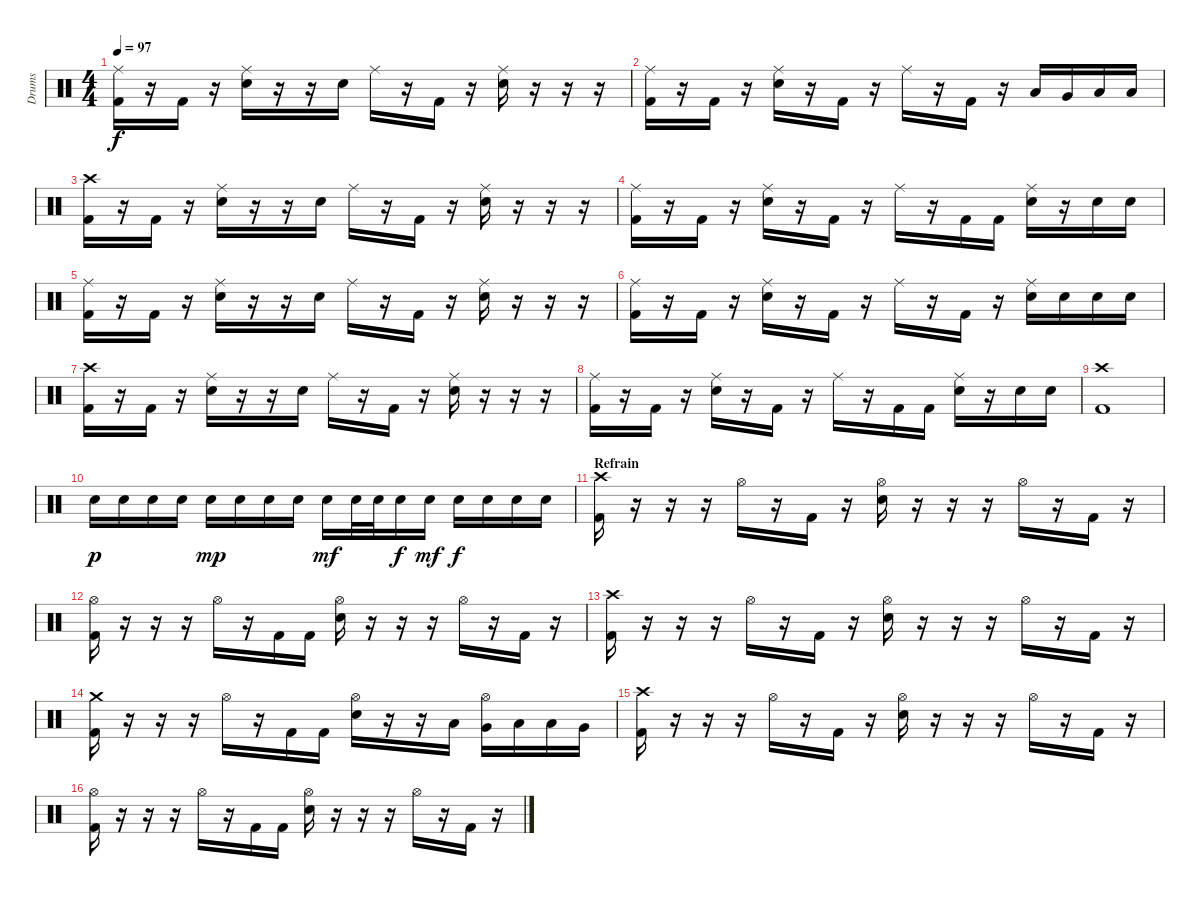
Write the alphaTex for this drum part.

\track ("Drums" "Drums") {instrument percussion}
\staff {score}
\articulation defaults
\ts (4 4)
\tempo 97
\clef neutral
\ks c
("Kick (hit) 2" "Ride (middle)").16{dy f} r.16 "Kick (hit) 2".16 r.16 ("Electric Snare (hit)" "Ride (middle)").16 r.16 r.16 "Electric Snare (hit)".16 "Ride (middle)".16 r.16 "Kick (hit) 2".16 r.16 ("Electric Snare (hit)" "Ride (middle)").16 r.16 r.16 r.16 |
("Kick (hit) 2" "Ride (middle)").16 r.16 "Kick (hit) 2".16 r.16 ("Electric Snare (hit)" "Ride (middle)").16 r.16 "Kick (hit) 2".16 r.16 "Ride (middle)".16 r.16 "Kick (hit) 2".16 r.16 "Low Tom (hit)".16 "Very Low Tom (hit)".16 "Low Floor Tom (hit)".16 "Low Floor Tom (hit)".16 |
("Kick (hit) 2" "Crash high (hit)").16 r.16 "Kick (hit) 2".16 r.16 ("Electric Snare (hit)" "Ride (middle)").16 r.16 r.16 "Electric Snare (hit)".16 "Ride (middle)".16 r.16 "Kick (hit) 2".16 r.16 ("Electric Snare (hit)" "Ride (middle)").16 r.16 r.16 r.16 |
("Kick (hit) 2" "Ride (middle)").16 r.16 "Kick (hit) 2".16 r.16 ("Electric Snare (hit)" "Ride (middle)").16 r.16 "Kick (hit) 2".16 r.16 "Ride (middle)".16 r.16 "Kick (hit) 2".16 "Kick (hit) 2".16 ("Electric Snare (hit)" "Ride (middle)").16 r.16 "Electric Snare (hit)".16 "Electric Snare (hit)".16 |
("Kick (hit) 2" "Ride (middle)").16 r.16 "Kick (hit) 2".16 r.16 ("Electric Snare (hit)" "Ride (middle)").16 r.16 r.16 "Electric Snare (hit)".16 "Ride (middle)".16 r.16 "Kick (hit) 2".16 r.16 ("Electric Snare (hit)" "Ride (middle)").16 r.16 r.16 r.16 |
("Kick (hit) 2" "Ride (middle)").16 r.16 "Kick (hit) 2".16 r.16 ("Electric Snare (hit)" "Ride (middle)").16 r.16 "Kick (hit) 2".16 r.16 "Ride (middle)".16 r.16 "Kick (hit) 2".16 r.16 ("Electric Snare (hit)" "Ride (middle)").16 "Electric Snare (hit)".16 "Electric Snare (hit)".16 "Electric Snare (hit)".16 |
("Kick (hit) 2" "Crash high (hit)").16 r.16 "Kick (hit) 2".16 r.16 ("Electric Snare (hit)" "Ride (middle)").16 r.16 r.16 "Electric Snare (hit)".16 "Ride (middle)".16 r.16 "Kick (hit) 2".16 r.16 ("Electric Snare (hit)" "Ride (middle)").16 r.16 r.16 r.16 |
("Kick (hit) 2" "Ride (middle)").16 r.16 "Kick (hit) 2".16 r.16 ("Electric Snare (hit)" "Ride (middle)").16 r.16 "Kick (hit) 2".16 r.16 "Ride (middle)".16 r.16 "Kick (hit) 2".16 "Kick (hit) 2".16 ("Electric Snare (hit)" "Ride (middle)").16 r.16 "Electric Snare (hit)".16 "Electric Snare (hit)".16 |
("Kick (hit) 2" "Crash high (hit)").1 |
"Electric Snare (hit)".16{dy p} "Electric Snare (hit)".16 "Electric Snare (hit)".16 "Electric Snare (hit)".16 "Electric Snare (hit)".16{dy mp} "Electric Snare (hit)".16 "Electric Snare (hit)".16 "Electric Snare (hit)".16 "Electric Snare (hit)".16{dy mf} "Electric Snare (hit)".32 "Electric Snare (hit)".32 "Electric Snare (hit)".16{dy f} "Electric Snare (hit)".16{dy mf} "Electric Snare (hit)".16{dy f} "Electric Snare (hit)".16 "Electric Snare (hit)".16 "Electric Snare (hit)".16 |
\section ("" "Refrain")
("Kick (hit) 2" "Crash high (hit)").16 r.16 r.16 r.16 "Hi-Hat (open)".16 r.16 "Kick (hit) 2".16 r.16 ("Electric Snare (hit)" "Hi-Hat (open)").16 r.16 r.16 r.16 "Hi-Hat (open)".16 r.16 "Kick (hit) 2".16 r.16 |
("Kick (hit) 2" "Hi-Hat (open)").16 r.16 r.16 r.16 "Hi-Hat (open)".16 r.16 "Kick (hit) 2".16 "Kick (hit) 2".16 ("Electric Snare (hit)" "Hi-Hat (open)").16 r.16 r.16 r.16 "Hi-Hat (open)".16 r.16 "Kick (hit) 2".16 r.16 |
("Kick (hit) 2" "Crash high (hit)").16 r.16 r.16 r.16 "Hi-Hat (open)".16 r.16 "Kick (hit) 2".16 r.16 ("Electric Snare (hit)" "Hi-Hat (open)").16 r.16 r.16 r.16 "Hi-Hat (open)".16 r.16 "Kick (hit) 2".16 r.16 |
("Kick (hit) 2" "Crash medium (hit)").16 r.16 r.16 r.16 "Hi-Hat (open)".16 r.16 "Kick (hit) 2".16 "Kick (hit) 2".16 ("Electric Snare (hit)" "Hi-Hat (open)").16 r.16 r.16 "Low Tom (hit)".16 ("Very Low Tom (hit)" "Hi-Hat (open)").16 "Low Floor Tom (hit)".16 "Low Floor Tom (hit)".16 "Very Low Tom (hit)".16 |
("Kick (hit) 2" "Crash high (hit)").16 r.16 r.16 r.16 "Hi-Hat (open)".16 r.16 "Kick (hit) 2".16 r.16 ("Electric Snare (hit)" "Hi-Hat (open)").16 r.16 r.16 r.16 "Hi-Hat (open)".16 r.16 "Kick (hit) 2".16 r.16 |
("Kick (hit) 2" "Hi-Hat (open)").16 r.16 r.16 r.16 "Hi-Hat (open)".16 r.16 "Kick (hit) 2".16 "Kick (hit) 2".16 ("Electric Snare (hit)" "Hi-Hat (open)").16 r.16 r.16 r.16 "Hi-Hat (open)".16 r.16 "Kick (hit) 2".16 r.16
